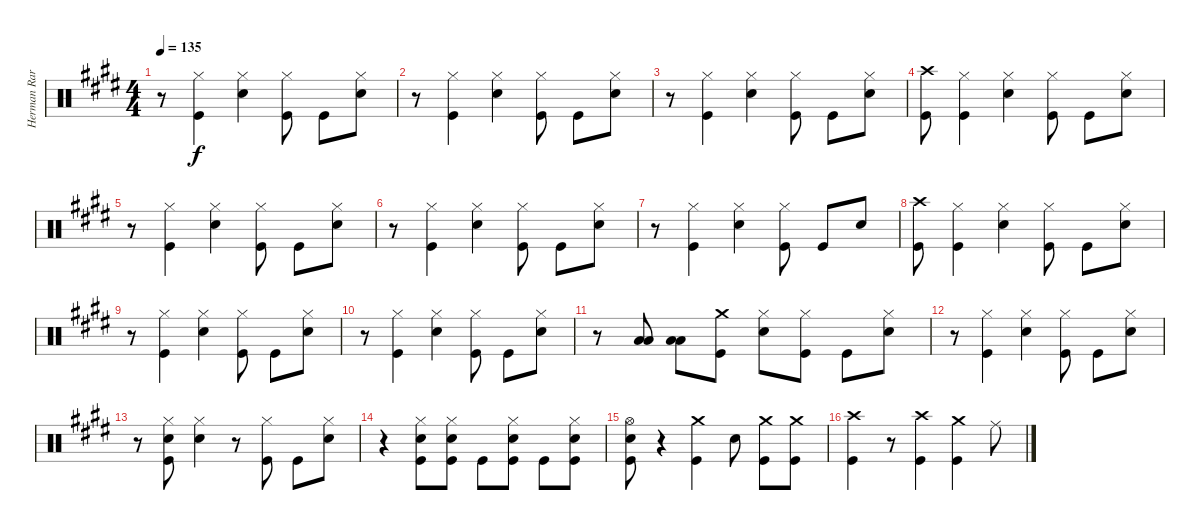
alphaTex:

\track ("Herman Rarebell Drums" "Herman Rar") {instrument percussion}
\staff {score}
\articulation defaults
\ts (4 4)
\tempo 135
\clef neutral
\ks e
r.8{dy f} ("Hi-Hat (closed)" "Kick (hit)").4 ("Hi-Hat (closed)" "Snare (hit) 2").4 ("Hi-Hat (closed)" "Kick (hit)").8 "Kick (hit)".8 ("Hi-Hat (closed)" "Snare (hit) 2").8 |
r.8 ("Hi-Hat (closed)" "Kick (hit)").4 ("Hi-Hat (closed)" "Snare (hit) 2").4 ("Hi-Hat (closed)" "Kick (hit)").8 "Kick (hit)".8 ("Hi-Hat (closed)" "Snare (hit) 2").8 |
r.8 ("Hi-Hat (closed)" "Kick (hit)").4 ("Hi-Hat (closed)" "Snare (hit) 2").4 ("Hi-Hat (closed)" "Kick (hit)").8 "Kick (hit)".8 ("Hi-Hat (closed)" "Snare (hit) 2").8 |
("Crash high (hit)" "Kick (hit)").8 ("Hi-Hat (closed)" "Kick (hit)").4 ("Hi-Hat (closed)" "Snare (hit) 2").4 ("Hi-Hat (closed)" "Kick (hit)").8 "Kick (hit)".8 ("Hi-Hat (closed)" "Snare (hit) 2").8 |
r.8 ("Hi-Hat (closed)" "Kick (hit)").4 ("Hi-Hat (closed)" "Snare (hit) 2").4 ("Hi-Hat (closed)" "Kick (hit)").8 "Kick (hit)".8 ("Hi-Hat (closed)" "Snare (hit) 2").8 |
r.8 ("Hi-Hat (closed)" "Kick (hit)").4 ("Hi-Hat (closed)" "Snare (hit) 2").4 ("Hi-Hat (closed)" "Kick (hit)").8 "Kick (hit)".8 ("Hi-Hat (closed)" "Snare (hit) 2").8 |
r.8 ("Hi-Hat (closed)" "Kick (hit)").4 ("Hi-Hat (closed)" "Snare (hit) 2").4 ("Hi-Hat (closed)" "Kick (hit)").8 "Kick (hit)".8 "Snare (hit) 2".8 |
("Crash high (hit)" "Kick (hit)").8 ("Hi-Hat (closed)" "Kick (hit)").4 ("Hi-Hat (closed)" "Snare (hit) 2").4 ("Hi-Hat (closed)" "Kick (hit)").8 "Kick (hit)".8 ("Hi-Hat (closed)" "Snare (hit) 2").8 |
r.8 ("Hi-Hat (closed)" "Kick (hit)").4 ("Hi-Hat (closed)" "Snare (hit) 2").4 ("Hi-Hat (closed)" "Kick (hit)").8 "Kick (hit)".8 ("Hi-Hat (closed)" "Snare (hit) 2").8 |
r.8 ("Hi-Hat (closed)" "Kick (hit)").4 ("Hi-Hat (closed)" "Snare (hit) 2").4 ("Hi-Hat (closed)" "Kick (hit)").8 "Kick (hit)".8 ("Hi-Hat (closed)" "Snare (hit) 2").8 |
r.8 ("Low Floor Tom (hit)" "Low Floor Tom (hit)").8 ("Low Floor Tom (hit)" "Low Floor Tom (hit)").8 ("Crash medium (hit)" "Kick (hit)").8 ("Hi-Hat (closed)" "Snare (hit) 2").8 ("Hi-Hat (closed)" "Kick (hit)").8 "Kick (hit)".8 ("Hi-Hat (closed)" "Snare (hit) 2").8 |
r.8 ("Hi-Hat (closed)" "Kick (hit)").4 ("Hi-Hat (closed)" "Snare (hit) 2").4 ("Hi-Hat (closed)" "Kick (hit)").8 "Kick (hit)".8 ("Hi-Hat (closed)" "Snare (hit) 2").8 |
r.8 ("Hi-Hat (closed)" "Snare (hit) 2" "Kick (hit)").8 ("Hi-Hat (closed)" "Snare (hit) 2").4 r.8 ("Hi-Hat (closed)" "Kick (hit)").8 "Kick (hit)".8 ("Hi-Hat (closed)" "Snare (hit) 2").8 |
r.4 ("Hi-Hat (closed)" "Snare (hit) 2" "Kick (hit)").8 ("Hi-Hat (closed)" "Snare (hit) 2" "Kick (hit)").8 "Kick (hit)".8 ("Hi-Hat (closed)" "Snare (hit) 2" "Kick (hit)").8 "Kick (hit)".8 ("Hi-Hat (closed)" "Snare (hit) 2" "Kick (hit)").8 |
("Hi-Hat (open)" "Snare (hit) 2" "Kick (hit)").8 r.4 ("Crash medium (hit)" "Kick (hit)").4 "Snare (hit) 2".8 ("Crash medium (hit)" "Kick (hit)").8 ("Crash medium (hit)" "Kick (hit)").8 |
("Crash high (hit)" "Kick (hit)").4 r.8 ("Crash high (hit)" "Kick (hit)").4 ("Crash medium (hit)" "Kick (hit)").4 "Ride (middle)".8
